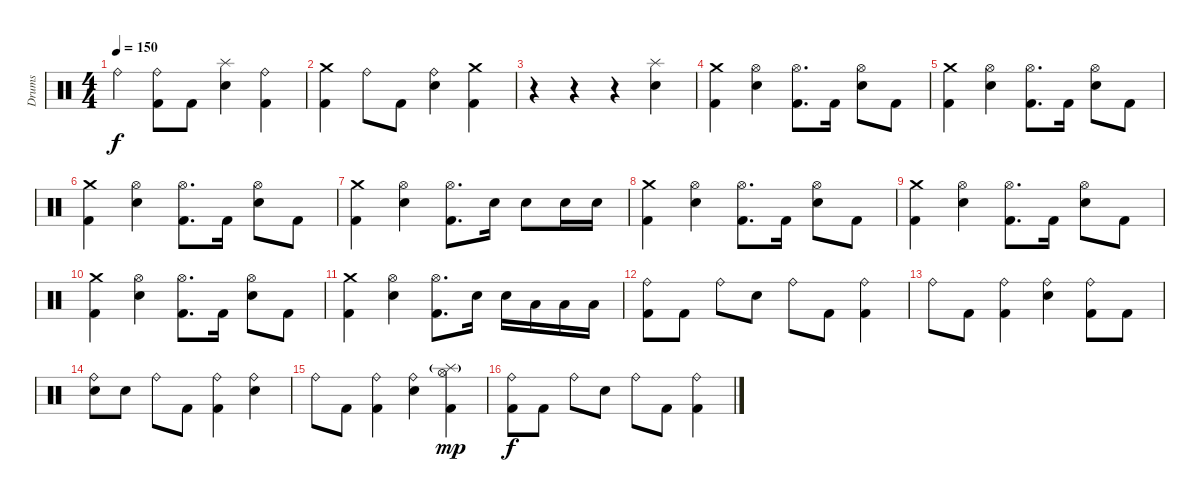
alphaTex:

\track ("Drums" "Drums") {instrument percussion}
\staff {score}
\articulation defaults
\ts (4 4)
\tempo 150
\clef neutral
\ks c "Ride (bell)".4{dy f}
("Ride (bell)" "Kick (hit) 2").8 "Kick (hit) 2".8 ("Splash (hit)" "Electric Snare (hit)").4 ("Ride (bell)" "Kick (hit) 2").4 |
("Crash medium (hit)" "Kick (hit) 2").4 "Ride (bell)".8 "Kick (hit) 2".8 ("Ride (bell)" "Electric Snare (hit)").4 ("Crash medium (hit)" "Kick (hit) 2").4 |
r.4 r.4 r.4 ("Splash (hit)" "Electric Snare (hit)").4 |
("Crash medium (hit)" "Kick (hit) 2").4 ("Hi-Hat (open)" "Electric Snare (hit)").4 ("Hi-Hat (open)" "Kick (hit) 2").8{d} "Kick (hit) 2".16 ("Hi-Hat (open)" "Electric Snare (hit)").8 "Kick (hit) 2".8 |
("Crash medium (hit)" "Kick (hit) 2").4 ("Hi-Hat (open)" "Electric Snare (hit)").4 ("Hi-Hat (open)" "Kick (hit) 2").8{d} "Kick (hit) 2".16 ("Hi-Hat (open)" "Electric Snare (hit)").8 "Kick (hit) 2".8 |
("Crash medium (hit)" "Kick (hit) 2").4 ("Hi-Hat (open)" "Electric Snare (hit)").4 ("Hi-Hat (open)" "Kick (hit) 2").8{d} "Kick (hit) 2".16 ("Hi-Hat (open)" "Electric Snare (hit)").8 "Kick (hit) 2".8 |
("Crash medium (hit)" "Kick (hit) 2").4 ("Hi-Hat (open)" "Electric Snare (hit)").4 ("Hi-Hat (open)" "Kick (hit) 2").8{d} "Electric Snare (hit)".16 "Electric Snare (hit)".8 "Electric Snare (hit)".16 "Electric Snare (hit)".16 |
("Crash medium (hit)" "Kick (hit) 2").4 ("Hi-Hat (open)" "Electric Snare (hit)").4 ("Hi-Hat (open)" "Kick (hit) 2").8{d} "Kick (hit) 2".16 ("Hi-Hat (open)" "Electric Snare (hit)").8 "Kick (hit) 2".8 |
("Crash medium (hit)" "Kick (hit) 2").4 ("Hi-Hat (open)" "Electric Snare (hit)").4 ("Hi-Hat (open)" "Kick (hit) 2").8{d} "Kick (hit) 2".16 ("Hi-Hat (open)" "Electric Snare (hit)").8 "Kick (hit) 2".8 |
("Crash medium (hit)" "Kick (hit) 2").4 ("Hi-Hat (open)" "Electric Snare (hit)").4 ("Hi-Hat (open)" "Kick (hit) 2").8{d} "Kick (hit) 2".16 ("Hi-Hat (open)" "Electric Snare (hit)").8 "Kick (hit) 2".8 |
("Crash medium (hit)" "Kick (hit) 2").4 ("Hi-Hat (open)" "Electric Snare (hit)").4 ("Hi-Hat (open)" "Kick (hit) 2").8{d} "Electric Snare (hit)".16 "Electric Snare (hit)".16 "Low Tom (hit)".16 "Low Tom (hit)".16 "Low Floor Tom (hit)".16 |
("Ride (bell)" "Kick (hit) 2").8 "Kick (hit) 2".8 "Ride (bell)".8 "Electric Snare (hit)".8 "Ride (bell)".8 "Kick (hit) 2".8 ("Ride (bell)" "Kick (hit) 2").4 |
"Ride (bell)".8 "Kick (hit) 2".8 ("Ride (bell)" "Kick (hit) 2").4 ("Ride (bell)" "Electric Snare (hit)").4 ("Ride (bell)" "Kick (hit) 2").8 "Kick (hit) 2".8 |
("Ride (bell)" "Electric Snare (hit)").8 "Electric Snare (hit)".8 "Ride (bell)".8 "Kick (hit) 2".8 ("Ride (bell)" "Kick (hit) 2").4 ("Ride (bell)" "Electric Snare (hit)").4 |
"Ride (bell)".8 "Kick (hit) 2".8 ("Ride (bell)" "Kick (hit) 2").4 ("Ride (bell)" "Electric Snare (hit)").4 ("Hi-Hat (open)" "Splash (hit)"{g} "Kick (hit) 2").4{dy mp} |
("Ride (bell)" "Kick (hit) 2").8{dy f} "Kick (hit) 2".8 "Ride (bell)".8 "Electric Snare (hit)".8 "Ride (bell)".8 "Kick (hit) 2".8 ("Ride (bell)" "Kick (hit) 2").4
